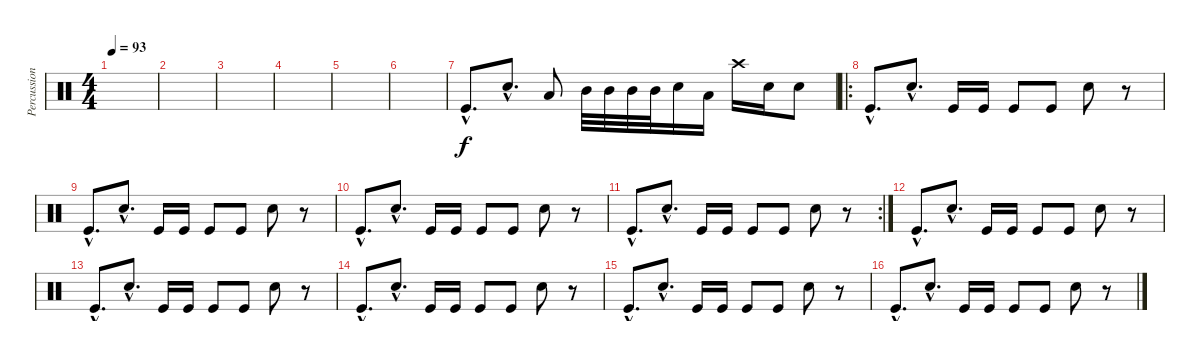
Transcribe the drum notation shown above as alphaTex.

\track ("Percussion" "Percussion") {instrument percussion}
\staff {score}
\articulation defaults
\ts (4 4)
\tempo 93
\clef neutral
\ks c
|
|
|
|
|
|
"Kick (hit)"{hac}.8{d} "Electric Snare (hit)"{hac}.8{d} "Low Floor Tom (hit)".8 "Mid Tom (hit)".32 "Mid Tom (hit)".32 "Mid Tom (hit)".32 "Mid Tom (hit)".32 "Electric Snare (hit)".16 "Low Floor Tom (hit)".16 "Crash high (hit)".16 "Electric Snare (hit)".16 "Electric Snare (hit)".8 |
\ro "Kick (hit)"{hac}.8{d} "Electric Snare (hit)"{hac}.8{d} "Kick (hit)".16 "Kick (hit)".16 "Kick (hit)".8 "Kick (hit)".8 "Electric Snare (hit)".8
r.8 |
"Kick (hit)"{hac}.8{d} "Electric Snare (hit)"{hac}.8{d} "Kick (hit)".16 "Kick (hit)".16 "Kick (hit)".8 "Kick (hit)".8 "Electric Snare (hit)".8 r.8 |
"Kick (hit)"{hac}.8{d} "Electric Snare (hit)"{hac}.8{d} "Kick (hit)".16 "Kick (hit)".16 "Kick (hit)".8 "Kick (hit)".8 "Electric Snare (hit)".8 r.8 |
\rc 2 "Kick (hit)"{hac}.8{d} "Electric Snare (hit)"{hac}.8{d} "Kick (hit)".16 "Kick (hit)".16 "Kick (hit)".8 "Kick (hit)".8 "Electric Snare (hit)".8
r.8 |
"Kick (hit)"{hac}.8{d} "Electric Snare (hit)"{hac}.8{d} "Kick (hit)".16 "Kick (hit)".16 "Kick (hit)".8 "Kick (hit)".8 "Electric Snare (hit)".8 r.8 |
"Kick (hit)"{hac}.8{d} "Electric Snare (hit)"{hac}.8{d} "Kick (hit)".16 "Kick (hit)".16 "Kick (hit)".8 "Kick (hit)".8 "Electric Snare (hit)".8 r.8 |
"Kick (hit)"{hac}.8{d} "Electric Snare (hit)"{hac}.8{d} "Kick (hit)".16 "Kick (hit)".16 "Kick (hit)".8 "Kick (hit)".8 "Electric Snare (hit)".8 r.8 |
"Kick (hit)"{hac}.8{d} "Electric Snare (hit)"{hac}.8{d} "Kick (hit)".16 "Kick (hit)".16 "Kick (hit)".8 "Kick (hit)".8 "Electric Snare (hit)".8 r.8 |
"Kick (hit)"{hac}.8{d} "Electric Snare (hit)"{hac}.8{d} "Kick (hit)".16 "Kick (hit)".16 "Kick (hit)".8 "Kick (hit)".8 "Electric Snare (hit)".8 r.8
